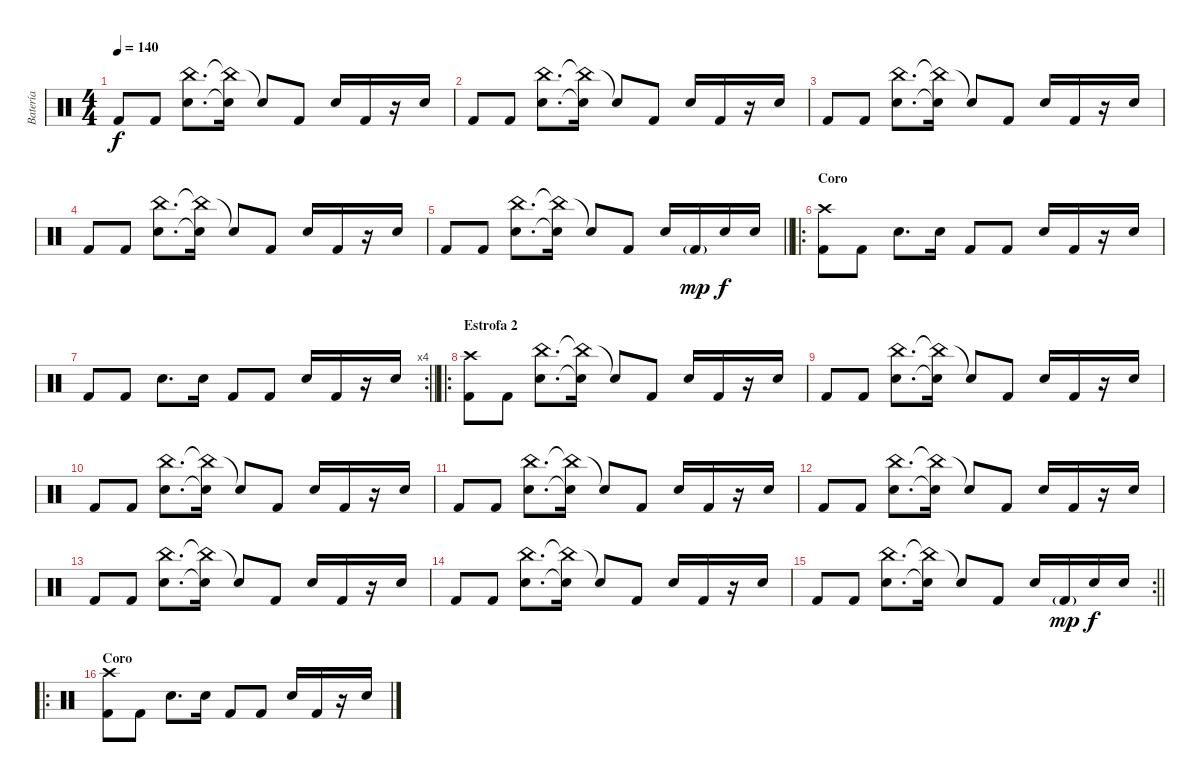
\track ("Batería" "Batería") {instrument percussion}
\staff {score}
\articulation defaults
\ts (4 4)
\tempo 140
\clef neutral
\ks c "Kick (hit) 2".8{dy f} "Kick (hit) 2".8
("China (hit)" "Electric Snare (hit)").8{d} ("China (hit)"{t} "Electric Snare (hit)"{t}).16 "Snare (hit)"{t}.8 "Kick (hit) 2".8 "Electric Snare (hit)".16 "Kick (hit) 2".16 r.16 "Electric Snare (hit)".16 |
"Kick (hit) 2".8 "Kick (hit) 2".8 ("China (hit)" "Electric Snare (hit)").8{d} ("China (hit)"{t} "Electric Snare (hit)"{t}).16 "Snare (hit)"{t}.8 "Kick (hit) 2".8 "Electric Snare (hit)".16 "Kick (hit) 2".16 r.16 "Electric Snare (hit)".16 |
"Kick (hit) 2".8 "Kick (hit) 2".8 ("China (hit)" "Electric Snare (hit)").8{d} ("China (hit)"{t} "Electric Snare (hit)"{t}).16 "Snare (hit)"{t}.8 "Kick (hit) 2".8 "Electric Snare (hit)".16 "Kick (hit) 2".16 r.16 "Electric Snare (hit)".16 |
"Kick (hit) 2".8 "Kick (hit) 2".8 ("China (hit)" "Electric Snare (hit)").8{d} ("China (hit)"{t} "Electric Snare (hit)"{t}).16 "Snare (hit)"{t}.8 "Kick (hit) 2".8 "Electric Snare (hit)".16 "Kick (hit) 2".16 r.16 "Electric Snare (hit)".16 |
\barLineRight lightlight "Kick (hit) 2".8 "Kick (hit) 2".8
("China (hit)" "Electric Snare (hit)").8{d} ("China (hit)"{t} "Electric Snare (hit)"{t}).16 "Snare (hit)"{t}.8 "Kick (hit) 2".8 "Electric Snare (hit)".16 "Kick (hit) 2"{g}.16{dy mp} "Electric Snare (hit)".16{dy f} "Electric Snare (hit)".16 |
\ro
\section ("" "Coro")
("Kick (hit) 2" "Crash high (hit)").8 "Kick (hit) 2".8 "Electric Snare (hit)".8{d} "Electric Snare (hit)".16 "Kick (hit) 2".8 "Kick (hit) 2".8 "Electric Snare (hit)".16 "Kick (hit) 2".16 r.16 "Electric Snare (hit)".16 |
\rc 4
\barLineRight lightlight "Kick (hit) 2".8 "Kick (hit) 2".8 "Electric Snare (hit)".8{d} "Electric Snare (hit)".16 "Kick (hit) 2".8 "Kick (hit) 2".8 "Electric Snare (hit)".16 "Kick (hit) 2".16
r.16 "Electric Snare (hit)".16 |
\ro
\section ("" "Estrofa 2")
("Crash high (hit)" "Kick (hit) 2").8 "Kick (hit) 2".8 ("China (hit)" "Electric Snare (hit)").8{d} ("China (hit)"{t} "Electric Snare (hit)"{t}).16 "Snare (hit)"{t}.8 "Kick (hit) 2".8 "Electric Snare (hit)".16 "Kick (hit) 2".16 r.16 "Electric Snare (hit)".16 |
"Kick (hit) 2".8 "Kick (hit) 2".8 ("China (hit)" "Electric Snare (hit)").8{d} ("China (hit)"{t} "Electric Snare (hit)"{t}).16 "Snare (hit)"{t}.8 "Kick (hit) 2".8 "Electric Snare (hit)".16 "Kick (hit) 2".16 r.16 "Electric Snare (hit)".16 |
"Kick (hit) 2".8 "Kick (hit) 2".8 ("China (hit)" "Electric Snare (hit)").8{d} ("China (hit)"{t} "Electric Snare (hit)"{t}).16 "Snare (hit)"{t}.8 "Kick (hit) 2".8 "Electric Snare (hit)".16 "Kick (hit) 2".16 r.16 "Electric Snare (hit)".16 |
"Kick (hit) 2".8 "Kick (hit) 2".8 ("China (hit)" "Electric Snare (hit)").8{d} ("China (hit)"{t} "Electric Snare (hit)"{t}).16 "Snare (hit)"{t}.8 "Kick (hit) 2".8 "Electric Snare (hit)".16 "Kick (hit) 2".16 r.16 "Electric Snare (hit)".16 |
"Kick (hit) 2".8 "Kick (hit) 2".8 ("China (hit)" "Electric Snare (hit)").8{d} ("China (hit)"{t} "Electric Snare (hit)"{t}).16 "Snare (hit)"{t}.8 "Kick (hit) 2".8 "Electric Snare (hit)".16 "Kick (hit) 2".16 r.16 "Electric Snare (hit)".16 |
"Kick (hit) 2".8 "Kick (hit) 2".8 ("China (hit)" "Electric Snare (hit)").8{d} ("China (hit)"{t} "Electric Snare (hit)"{t}).16 "Snare (hit)"{t}.8 "Kick (hit) 2".8 "Electric Snare (hit)".16 "Kick (hit) 2".16 r.16 "Electric Snare (hit)".16 |
"Kick (hit) 2".8 "Kick (hit) 2".8 ("China (hit)" "Electric Snare (hit)").8{d} ("China (hit)"{t} "Electric Snare (hit)"{t}).16 "Snare (hit)"{t}.8 "Kick (hit) 2".8 "Electric Snare (hit)".16 "Kick (hit) 2".16 r.16 "Electric Snare (hit)".16 |
\rc 2
\barLineRight lightlight "Kick (hit) 2".8 "Kick (hit) 2".8
("China (hit)" "Electric Snare (hit)").8{d} ("China (hit)"{t} "Electric Snare (hit)"{t}).16 "Snare (hit)"{t}.8 "Kick (hit) 2".8 "Electric Snare (hit)".16 "Kick (hit) 2"{g}.16{dy mp} "Electric Snare (hit)".16{dy f} "Electric Snare (hit)".16 |
\ro
\section ("" "Coro")
("Kick (hit) 2" "Crash high (hit)").8 "Kick (hit) 2".8 "Electric Snare (hit)".8{d} "Electric Snare (hit)".16 "Kick (hit) 2".8 "Kick (hit) 2".8 "Electric Snare (hit)".16 "Kick (hit) 2".16 r.16 "Electric Snare (hit)".16
